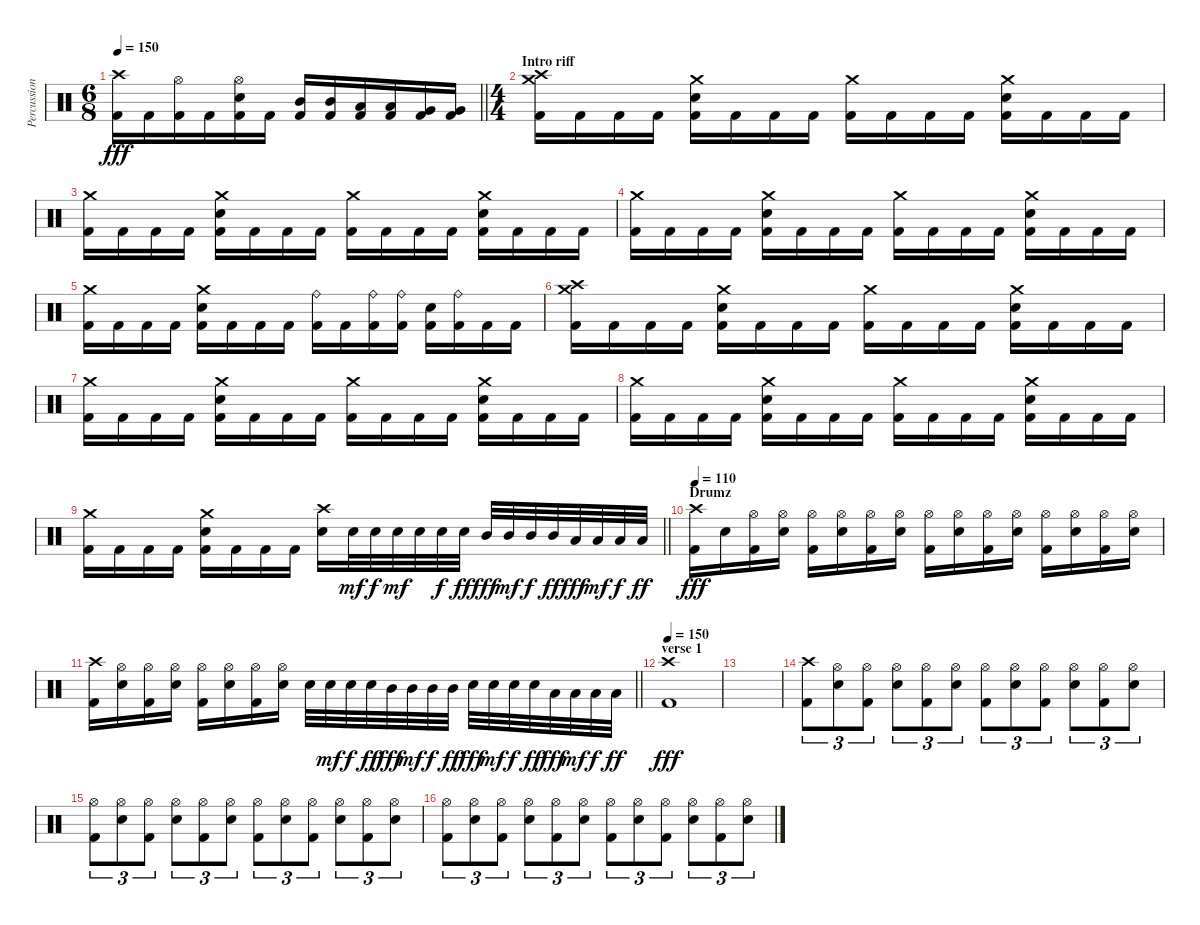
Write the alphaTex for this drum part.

\track ("Percussion" "Percussion") {instrument percussion}
\staff {score}
\articulation defaults
\ts (6 8)
\tempo 150
\clef neutral
\barLineRight lightlight
\ks c
("Crash high (hit)" "Kick (hit) 2").16{dy fff} "Kick (hit) 2".16 ("Hi-Hat (open)" "Kick (hit) 2").16 "Kick (hit) 2".16 ("Snare (hit) 2" "Hi-Hat (open)" "Kick (hit) 2").16 "Kick (hit) 2".16 ("Mid Tom (hit)" "Kick (hit) 2").16 ("Mid Tom (hit)" "Kick (hit) 2").16 ("Low Tom (hit)" "Kick (hit) 2").16 ("Low Tom (hit)" "Kick (hit) 2").16 ("Very Low Tom (hit)" "Kick (hit) 2").16 ("Very Low Tom (hit)" "Kick (hit) 2").16 |
\ts (4 4)
\section ("" "Intro riff")
("Crash medium (hit)" "Crash high (hit)" "Kick (hit) 2").16 "Kick (hit) 2".16 "Kick (hit) 2".16 "Kick (hit) 2".16 ("Crash medium (hit)" "Snare (hit) 2" "Kick (hit) 2").16 "Kick (hit) 2".16 "Kick (hit) 2".16 "Kick (hit) 2".16 ("Crash medium (hit)" "Kick (hit) 2").16 "Kick (hit) 2".16 "Kick (hit) 2".16 "Kick (hit) 2".16 ("Crash medium (hit)" "Snare (hit) 2" "Kick (hit) 2").16 "Kick (hit) 2".16 "Kick (hit) 2".16 "Kick (hit) 2".16 |
("Crash medium (hit)" "Kick (hit) 2").16 "Kick (hit) 2".16 "Kick (hit) 2".16 "Kick (hit) 2".16 ("Crash medium (hit)" "Snare (hit) 2" "Kick (hit) 2").16 "Kick (hit) 2".16 "Kick (hit) 2".16 "Kick (hit) 2".16 ("Crash medium (hit)" "Kick (hit) 2").16 "Kick (hit) 2".16 "Kick (hit) 2".16 "Kick (hit) 2".16 ("Crash medium (hit)" "Snare (hit) 2" "Kick (hit) 2").16 "Kick (hit) 2".16 "Kick (hit) 2".16 "Kick (hit) 2".16 |
("Crash medium (hit)" "Kick (hit) 2").16 "Kick (hit) 2".16 "Kick (hit) 2".16 "Kick (hit) 2".16 ("Crash medium (hit)" "Snare (hit) 2" "Kick (hit) 2").16 "Kick (hit) 2".16 "Kick (hit) 2".16 "Kick (hit) 2".16 ("Crash medium (hit)" "Kick (hit) 2").16 "Kick (hit) 2".16 "Kick (hit) 2".16 "Kick (hit) 2".16 ("Crash medium (hit)" "Snare (hit) 2" "Kick (hit) 2").16 "Kick (hit) 2".16 "Kick (hit) 2".16 "Kick (hit) 2".16 |
("Crash medium (hit)" "Kick (hit) 2").16 "Kick (hit) 2".16 "Kick (hit) 2".16 "Kick (hit) 2".16 ("Crash medium (hit)" "Snare (hit) 2" "Kick (hit) 2").16 "Kick (hit) 2".16 "Kick (hit) 2".16 "Kick (hit) 2".16 ("Ride (bell)" "Kick (hit) 2").16 "Kick (hit) 2".16 ("Ride (bell)" "Kick (hit) 2").16 ("Ride (bell)" "Kick (hit) 2").16 ("Snare (hit) 2" "Kick (hit) 2").16 ("Ride (bell)" "Kick (hit) 2").16 "Kick (hit) 2".16 "Kick (hit) 2".16 |
("Crash medium (hit)" "Crash high (hit)" "Kick (hit) 2").16 "Kick (hit) 2".16 "Kick (hit) 2".16 "Kick (hit) 2".16 ("Crash medium (hit)" "Snare (hit) 2" "Kick (hit) 2").16 "Kick (hit) 2".16 "Kick (hit) 2".16 "Kick (hit) 2".16 ("Crash medium (hit)" "Kick (hit) 2").16 "Kick (hit) 2".16 "Kick (hit) 2".16 "Kick (hit) 2".16 ("Crash medium (hit)" "Snare (hit) 2" "Kick (hit) 2").16 "Kick (hit) 2".16 "Kick (hit) 2".16 "Kick (hit) 2".16 |
("Crash medium (hit)" "Kick (hit) 2").16 "Kick (hit) 2".16 "Kick (hit) 2".16 "Kick (hit) 2".16 ("Crash medium (hit)" "Snare (hit) 2" "Kick (hit) 2").16 "Kick (hit) 2".16 "Kick (hit) 2".16 "Kick (hit) 2".16 ("Crash medium (hit)" "Kick (hit) 2").16 "Kick (hit) 2".16 "Kick (hit) 2".16 "Kick (hit) 2".16 ("Crash medium (hit)" "Snare (hit) 2" "Kick (hit) 2").16 "Kick (hit) 2".16 "Kick (hit) 2".16 "Kick (hit) 2".16 |
("Crash medium (hit)" "Kick (hit) 2").16 "Kick (hit) 2".16 "Kick (hit) 2".16 "Kick (hit) 2".16 ("Crash medium (hit)" "Snare (hit) 2" "Kick (hit) 2").16 "Kick (hit) 2".16 "Kick (hit) 2".16 "Kick (hit) 2".16 ("Crash medium (hit)" "Kick (hit) 2").16 "Kick (hit) 2".16 "Kick (hit) 2".16 "Kick (hit) 2".16 ("Crash medium (hit)" "Snare (hit) 2" "Kick (hit) 2").16 "Kick (hit) 2".16 "Kick (hit) 2".16 "Kick (hit) 2".16 |
\barLineRight lightlight
("Crash medium (hit)" "Kick (hit) 2").16 "Kick (hit) 2".16 "Kick (hit) 2".16 "Kick (hit) 2".16 ("Crash medium (hit)" "Snare (hit) 2" "Kick (hit) 2").16 "Kick (hit) 2".16 "Kick (hit) 2".16 "Kick (hit) 2".16 ("Crash high (hit)" "Snare (hit) 2").16 "Snare (hit) 2".32{dy mf} "Snare (hit) 2".32{dy f} "Snare (hit) 2".32{dy mf} "Snare (hit) 2".32 "Snare (hit) 2".32{dy f} "Snare (hit) 2".32{dy ff} "Mid Tom (hit)".32{dy fff} "Mid Tom (hit)".32{dy mf} "Mid Tom (hit)".32{dy f} "Mid Tom (hit)".32{dy ff} "Low Tom (hit)".32{dy fff} "Low Tom (hit)".32{dy mf} "Low Tom (hit)".32{dy f} "Low Tom (hit)".32{dy ff} |
\section ("" "Drumz")
\tempo 110
("Crash high (hit)" "Kick (hit) 2").16{dy fff} "Snare (hit) 2".16 ("Hi-Hat (open)" "Kick (hit) 2").16 ("Snare (hit) 2" "Hi-Hat (open)").16 ("Hi-Hat (open)" "Kick (hit) 2").16 ("Snare (hit) 2" "Hi-Hat (open)").16 ("Hi-Hat (open)" "Kick (hit) 2").16 ("Snare (hit) 2" "Hi-Hat (open)").16 ("Hi-Hat (open)" "Kick (hit) 2").16 ("Snare (hit) 2" "Hi-Hat (open)").16 ("Hi-Hat (open)" "Kick (hit) 2").16 ("Snare (hit) 2" "Hi-Hat (open)").16 ("Hi-Hat (open)" "Kick (hit) 2").16 ("Snare (hit) 2" "Hi-Hat (open)").16 ("Hi-Hat (open)" "Kick (hit) 2").16 ("Snare (hit) 2" "Hi-Hat (open)").16 |
\barLineRight lightlight
("Crash high (hit)" "Kick (hit) 2").16 ("Snare (hit) 2" "Hi-Hat (open)").16 ("Hi-Hat (open)" "Kick (hit) 2").16 ("Snare (hit) 2" "Hi-Hat (open)").16 ("Hi-Hat (open)" "Kick (hit) 2").16 ("Snare (hit) 2" "Hi-Hat (open)").16 ("Hi-Hat (open)" "Kick (hit) 2").16 ("Snare (hit) 2" "Hi-Hat (open)").16 "Snare (hit) 2".32 "Snare (hit) 2".32{dy mf} "Snare (hit) 2".32{dy f} "Snare (hit) 2".32{dy ff} "Mid Tom (hit)".32{dy fff} "Mid Tom (hit)".32{dy mf} "Mid Tom (hit)".32{dy f} "Mid Tom (hit)".32{dy ff} "Snare (hit) 2".32{dy fff} "Snare (hit) 2".32{dy mf} "Snare (hit) 2".32{dy f} "Snare (hit) 2".32{dy ff} "Low Tom (hit)".32{dy fff} "Low Tom (hit)".32{dy mf} "Low Tom (hit)".32{dy f} "Low Tom (hit)".32{dy ff} |
\section ("" "verse 1")
\tempo 150
("Crash high (hit)" "Kick (hit) 2").1{dy fff} |
|
("Crash high (hit)" "Kick (hit) 2").8{tu (3 2)} ("Snare (hit) 2" "Hi-Hat (open)").8{tu (3 2)} ("Hi-Hat (open)" "Kick (hit) 2").8{tu (3 2)} ("Snare (hit) 2" "Hi-Hat (open)").8{tu (3 2)} ("Hi-Hat (open)" "Kick (hit) 2").8{tu (3 2)} ("Snare (hit) 2" "Hi-Hat (open)").8{tu (3 2)} ("Hi-Hat (open)" "Kick (hit) 2").8{tu (3 2)} ("Snare (hit) 2" "Hi-Hat (open)").8{tu (3 2)} ("Hi-Hat (open)" "Kick (hit) 2").8{tu (3 2)} ("Snare (hit) 2" "Hi-Hat (open)").8{tu (3 2)} ("Hi-Hat (open)" "Kick (hit) 2").8{tu (3 2)} ("Snare (hit) 2" "Hi-Hat (open)").8{tu (3 2)} |
("Hi-Hat (open)" "Kick (hit) 2").8{tu (3 2)} ("Snare (hit) 2" "Hi-Hat (open)").8{tu (3 2)} ("Hi-Hat (open)" "Kick (hit) 2").8{tu (3 2)} ("Snare (hit) 2" "Hi-Hat (open)").8{tu (3 2)} ("Hi-Hat (open)" "Kick (hit) 2").8{tu (3 2)} ("Snare (hit) 2" "Hi-Hat (open)").8{tu (3 2)} ("Hi-Hat (open)" "Kick (hit) 2").8{tu (3 2)} ("Snare (hit) 2" "Hi-Hat (open)").8{tu (3 2)} ("Hi-Hat (open)" "Kick (hit) 2").8{tu (3 2)} ("Snare (hit) 2" "Hi-Hat (open)").8{tu (3 2)} ("Hi-Hat (open)" "Kick (hit) 2").8{tu (3 2)} ("Snare (hit) 2" "Hi-Hat (open)").8{tu (3 2)} |
("Hi-Hat (open)" "Kick (hit) 2").8{tu (3 2)} ("Snare (hit) 2" "Hi-Hat (open)").8{tu (3 2)} ("Hi-Hat (open)" "Kick (hit) 2").8{tu (3 2)} ("Snare (hit) 2" "Hi-Hat (open)").8{tu (3 2)} ("Hi-Hat (open)" "Kick (hit) 2").8{tu (3 2)} ("Snare (hit) 2" "Hi-Hat (open)").8{tu (3 2)} ("Hi-Hat (open)" "Kick (hit) 2").8{tu (3 2)} ("Snare (hit) 2" "Hi-Hat (open)").8{tu (3 2)} ("Hi-Hat (open)" "Kick (hit) 2").8{tu (3 2)} ("Snare (hit) 2" "Hi-Hat (open)").8{tu (3 2)} ("Hi-Hat (open)" "Kick (hit) 2").8{tu (3 2)} ("Snare (hit) 2" "Hi-Hat (open)").8{tu (3 2)}
